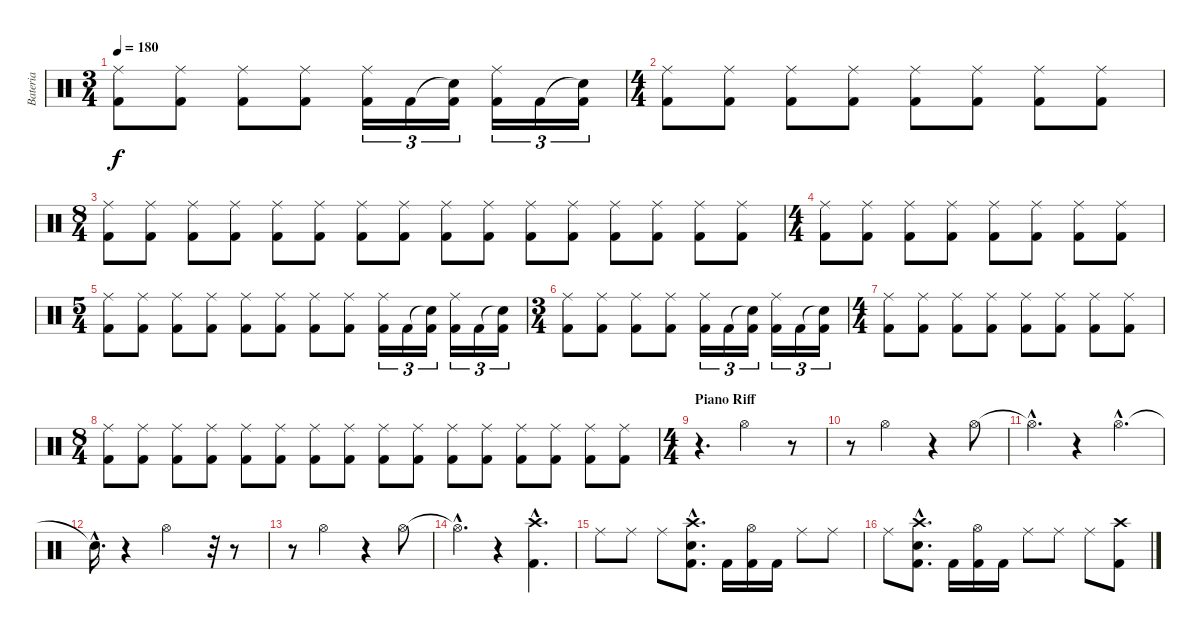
\track ("Bateria" "Bateria") {instrument percussion}
\staff {score}
\articulation defaults
\ts (3 4)
\tempo 180
\clef neutral
\ks c
("Ride (middle)" "Kick (hit) 2").8{dy f} ("Ride (middle)" "Kick (hit) 2").8 ("Ride (middle)" "Kick (hit) 2").8 ("Ride (middle)" "Kick (hit) 2").8 ("Ride (middle)" "Kick (hit) 2").16{tu (3 2)} "Kick (hit) 2".16{tu (3 2)} ("Snare (hit)"{t} "Kick (hit) 2").16{tu (3 2)} ("Ride (middle)" "Kick (hit) 2").16{tu (3 2)} "Kick (hit) 2".16{tu (3 2)} ("Snare (hit)"{t} "Kick (hit) 2").16{tu (3 2)} |
\ts (4 4)
("Ride (middle)" "Kick (hit) 2").8 ("Ride (middle)" "Kick (hit) 2").8 ("Ride (middle)" "Kick (hit) 2").8 ("Ride (middle)" "Kick (hit) 2").8 ("Ride (middle)" "Kick (hit) 2").8 ("Ride (middle)" "Kick (hit) 2").8 ("Ride (middle)" "Kick (hit) 2").8 ("Ride (middle)" "Kick (hit) 2").8 |
\ts (8 4)
("Ride (middle)" "Kick (hit) 2").8 ("Ride (middle)" "Kick (hit) 2").8 ("Ride (middle)" "Kick (hit) 2").8 ("Ride (middle)" "Kick (hit) 2").8 ("Ride (middle)" "Kick (hit) 2").8 ("Ride (middle)" "Kick (hit) 2").8 ("Ride (middle)" "Kick (hit) 2").8 ("Ride (middle)" "Kick (hit) 2").8 ("Ride (middle)" "Kick (hit) 2").8 ("Ride (middle)" "Kick (hit) 2").8 ("Ride (middle)" "Kick (hit) 2").8 ("Ride (middle)" "Kick (hit) 2").8 ("Ride (middle)" "Kick (hit) 2").8 ("Ride (middle)" "Kick (hit) 2").8 ("Ride (middle)" "Kick (hit) 2").8 ("Ride (middle)" "Kick (hit) 2").8 |
\ts (4 4)
("Ride (middle)" "Kick (hit) 2").8 ("Ride (middle)" "Kick (hit) 2").8 ("Ride (middle)" "Kick (hit) 2").8 ("Ride (middle)" "Kick (hit) 2").8 ("Ride (middle)" "Kick (hit) 2").8 ("Ride (middle)" "Kick (hit) 2").8 ("Ride (middle)" "Kick (hit) 2").8 ("Ride (middle)" "Kick (hit) 2").8 |
\ts (5 4)
("Ride (middle)" "Kick (hit) 2").8 ("Ride (middle)" "Kick (hit) 2").8 ("Ride (middle)" "Kick (hit) 2").8 ("Ride (middle)" "Kick (hit) 2").8 ("Ride (middle)" "Kick (hit) 2").8 ("Ride (middle)" "Kick (hit) 2").8 ("Ride (middle)" "Kick (hit) 2").8 ("Ride (middle)" "Kick (hit) 2").8 ("Ride (middle)" "Kick (hit) 2").16{tu (3 2)} "Kick (hit) 2".16{tu (3 2)} ("Snare (hit)"{t} "Kick (hit) 2").16{tu (3 2)} ("Ride (middle)" "Kick (hit) 2").16{tu (3 2)} "Kick (hit) 2".16{tu (3 2)} ("Snare (hit)"{t} "Kick (hit) 2").16{tu (3 2)} |
\ts (3 4)
("Ride (middle)" "Kick (hit) 2").8 ("Ride (middle)" "Kick (hit) 2").8 ("Ride (middle)" "Kick (hit) 2").8 ("Ride (middle)" "Kick (hit) 2").8 ("Ride (middle)" "Kick (hit) 2").16{tu (3 2)} "Kick (hit) 2".16{tu (3 2)} ("Snare (hit)"{t} "Kick (hit) 2").16{tu (3 2)} ("Ride (middle)" "Kick (hit) 2").16{tu (3 2)} "Kick (hit) 2".16{tu (3 2)} ("Snare (hit)"{t} "Kick (hit) 2").16{tu (3 2)} |
\ts (4 4)
("Ride (middle)" "Kick (hit) 2").8 ("Ride (middle)" "Kick (hit) 2").8 ("Ride (middle)" "Kick (hit) 2").8 ("Ride (middle)" "Kick (hit) 2").8 ("Ride (middle)" "Kick (hit) 2").8 ("Ride (middle)" "Kick (hit) 2").8 ("Ride (middle)" "Kick (hit) 2").8 ("Ride (middle)" "Kick (hit) 2").8 |
\ts (8 4)
("Ride (middle)" "Kick (hit) 2").8 ("Ride (middle)" "Kick (hit) 2").8 ("Ride (middle)" "Kick (hit) 2").8 ("Ride (middle)" "Kick (hit) 2").8 ("Ride (middle)" "Kick (hit) 2").8 ("Ride (middle)" "Kick (hit) 2").8 ("Ride (middle)" "Kick (hit) 2").8 ("Ride (middle)" "Kick (hit) 2").8 ("Ride (middle)" "Kick (hit) 2").8 ("Ride (middle)" "Kick (hit) 2").8 ("Ride (middle)" "Kick (hit) 2").8 ("Ride (middle)" "Kick (hit) 2").8 ("Ride (middle)" "Kick (hit) 2").8 ("Ride (middle)" "Kick (hit) 2").8 ("Ride (middle)" "Kick (hit) 2").8 ("Ride (middle)" "Kick (hit) 2").8 |
\ts (4 4)
\section ("" "Piano Riff")
r.4{d} "Hi-Hat (open)".2 r.8 |
r.8 "Hi-Hat (open)".2 r.4 "Hi-Hat (open)".8 |
"Hi-Hat (open)"{hac t}.4{d} r.4 "Hi-Hat (open)"{hac}.4{d} |
"Snare (hit)"{hac t}.16{d} r.4 "Hi-Hat (open)".2 r.32 r.8 |
r.8 "Hi-Hat (open)".2 r.4 "Hi-Hat (open)".8 |
"Hi-Hat (open)"{hac t}.4{d} r.4 ("Crash high (hit)"{hac} "Kick (hit) 2"{hac}).4{d} |
"Ride (middle)".8 "Ride (middle)".8 "Ride (middle)".8 ("Crash high (hit)"{hac} "Electric Snare (hit)"{hac} "Kick (hit) 2"{hac}).8{d} "Kick (hit) 2".16 ("Hi-Hat (open)" "Kick (hit) 2").16 "Kick (hit) 2".16 "Ride (middle)".8 "Ride (middle)".8 |
"Ride (middle)".8 ("Crash high (hit)"{hac} "Electric Snare (hit)"{hac} "Kick (hit) 2"{hac}).8{d} "Kick (hit) 2".16 ("Hi-Hat (open)" "Kick (hit) 2").16 "Kick (hit) 2".16 "Ride (middle)".8 "Ride (middle)".8 "Ride (middle)".8 ("Crash high (hit)" "Kick (hit) 2").8
